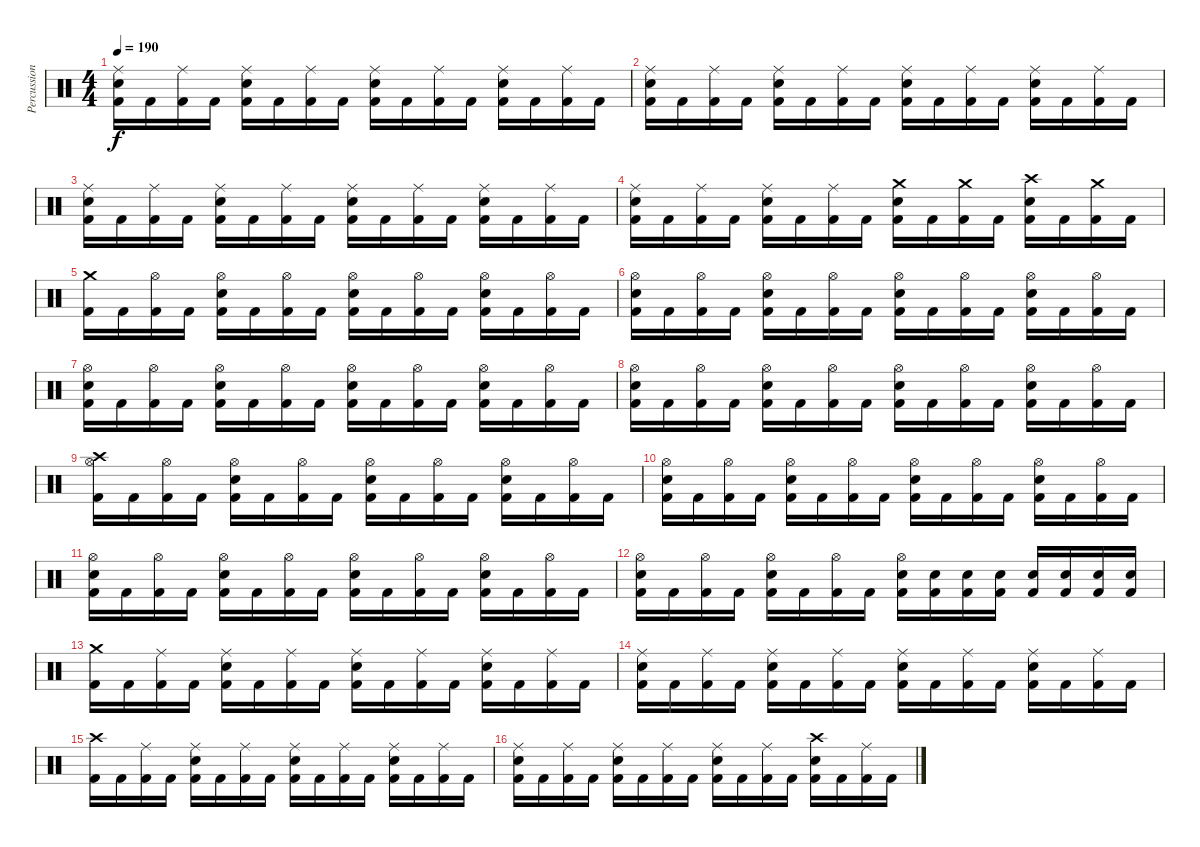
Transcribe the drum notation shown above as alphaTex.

\track ("Percussions" "Percussion") {instrument percussion}
\staff {score}
\articulation defaults
\ts (4 4)
\tempo 190
\clef neutral
\ks c
("Ride (middle)" "Electric Snare (hit)" "Kick (hit) 2").16{dy f} "Kick (hit) 2".16 ("Ride (middle)" "Kick (hit) 2").16 "Kick (hit) 2".16 ("Ride (middle)" "Electric Snare (hit)" "Kick (hit) 2").16 "Kick (hit) 2".16 ("Ride (middle)" "Kick (hit) 2").16 "Kick (hit) 2".16 ("Ride (middle)" "Electric Snare (hit)" "Kick (hit) 2").16 "Kick (hit) 2".16 ("Ride (middle)" "Kick (hit) 2").16 "Kick (hit) 2".16 ("Ride (middle)" "Electric Snare (hit)" "Kick (hit) 2").16 "Kick (hit) 2".16 ("Ride (middle)" "Kick (hit) 2").16 "Kick (hit) 2".16 |
("Ride (middle)" "Electric Snare (hit)" "Kick (hit) 2").16 "Kick (hit) 2".16 ("Ride (middle)" "Kick (hit) 2").16 "Kick (hit) 2".16 ("Ride (middle)" "Electric Snare (hit)" "Kick (hit) 2").16 "Kick (hit) 2".16 ("Ride (middle)" "Kick (hit) 2").16 "Kick (hit) 2".16 ("Ride (middle)" "Electric Snare (hit)" "Kick (hit) 2").16 "Kick (hit) 2".16 ("Ride (middle)" "Kick (hit) 2").16 "Kick (hit) 2".16 ("Ride (middle)" "Electric Snare (hit)" "Kick (hit) 2").16 "Kick (hit) 2".16 ("Ride (middle)" "Kick (hit) 2").16 "Kick (hit) 2".16 |
("Ride (middle)" "Electric Snare (hit)" "Kick (hit) 2").16 "Kick (hit) 2".16 ("Ride (middle)" "Kick (hit) 2").16 "Kick (hit) 2".16 ("Ride (middle)" "Electric Snare (hit)" "Kick (hit) 2").16 "Kick (hit) 2".16 ("Ride (middle)" "Kick (hit) 2").16 "Kick (hit) 2".16 ("Ride (middle)" "Electric Snare (hit)" "Kick (hit) 2").16 "Kick (hit) 2".16 ("Ride (middle)" "Kick (hit) 2").16 "Kick (hit) 2".16 ("Ride (middle)" "Electric Snare (hit)" "Kick (hit) 2").16 "Kick (hit) 2".16 ("Ride (middle)" "Kick (hit) 2").16 "Kick (hit) 2".16 |
("Ride (middle)" "Electric Snare (hit)" "Kick (hit) 2").16 "Kick (hit) 2".16 ("Ride (middle)" "Kick (hit) 2").16 "Kick (hit) 2".16 ("Ride (middle)" "Electric Snare (hit)" "Kick (hit) 2").16 "Kick (hit) 2".16 ("Ride (middle)" "Kick (hit) 2").16 "Kick (hit) 2".16 ("Crash medium (hit)" "Electric Snare (hit)" "Kick (hit) 2").16 "Kick (hit) 2".16 ("Crash medium (hit)" "Kick (hit) 2").16 "Kick (hit) 2".16 ("Crash high (hit)" "Electric Snare (hit)" "Kick (hit) 2").16 "Kick (hit) 2".16 ("Crash medium (hit)" "Kick (hit) 2").16 "Kick (hit) 2".16 |
("Crash medium (hit)" "Kick (hit) 2").16 "Kick (hit) 2".16 ("Hi-Hat (open)" "Kick (hit) 2").16 "Kick (hit) 2".16 ("Hi-Hat (open)" "Electric Snare (hit)" "Kick (hit) 2").16 "Kick (hit) 2".16 ("Hi-Hat (open)" "Kick (hit) 2").16 "Kick (hit) 2".16 ("Hi-Hat (open)" "Electric Snare (hit)" "Kick (hit) 2").16 "Kick (hit) 2".16 ("Hi-Hat (open)" "Kick (hit) 2").16 "Kick (hit) 2".16 ("Hi-Hat (open)" "Electric Snare (hit)" "Kick (hit) 2").16 "Kick (hit) 2".16 ("Hi-Hat (open)" "Kick (hit) 2").16 "Kick (hit) 2".16 |
("Hi-Hat (open)" "Electric Snare (hit)" "Kick (hit) 2").16 "Kick (hit) 2".16 ("Hi-Hat (open)" "Kick (hit) 2").16 "Kick (hit) 2".16 ("Hi-Hat (open)" "Electric Snare (hit)" "Kick (hit) 2").16 "Kick (hit) 2".16 ("Hi-Hat (open)" "Kick (hit) 2").16 "Kick (hit) 2".16 ("Hi-Hat (open)" "Electric Snare (hit)" "Kick (hit) 2").16 "Kick (hit) 2".16 ("Hi-Hat (open)" "Kick (hit) 2").16 "Kick (hit) 2".16 ("Hi-Hat (open)" "Electric Snare (hit)" "Kick (hit) 2").16 "Kick (hit) 2".16 ("Hi-Hat (open)" "Kick (hit) 2").16 "Kick (hit) 2".16 |
("Hi-Hat (open)" "Electric Snare (hit)" "Kick (hit) 2").16 "Kick (hit) 2".16 ("Hi-Hat (open)" "Kick (hit) 2").16 "Kick (hit) 2".16 ("Hi-Hat (open)" "Electric Snare (hit)" "Kick (hit) 2").16 "Kick (hit) 2".16 ("Hi-Hat (open)" "Kick (hit) 2").16 "Kick (hit) 2".16 ("Hi-Hat (open)" "Electric Snare (hit)" "Kick (hit) 2").16 "Kick (hit) 2".16 ("Hi-Hat (open)" "Kick (hit) 2").16 "Kick (hit) 2".16 ("Hi-Hat (open)" "Electric Snare (hit)" "Kick (hit) 2").16 "Kick (hit) 2".16 ("Hi-Hat (open)" "Kick (hit) 2").16 "Kick (hit) 2".16 |
("Hi-Hat (open)" "Electric Snare (hit)" "Kick (hit) 2").16 "Kick (hit) 2".16 ("Hi-Hat (open)" "Kick (hit) 2").16 "Kick (hit) 2".16 ("Hi-Hat (open)" "Electric Snare (hit)" "Kick (hit) 2").16 "Kick (hit) 2".16 ("Hi-Hat (open)" "Kick (hit) 2").16 "Kick (hit) 2".16 ("Hi-Hat (open)" "Electric Snare (hit)" "Kick (hit) 2").16 "Kick (hit) 2".16 ("Hi-Hat (open)" "Kick (hit) 2").16 "Kick (hit) 2".16 ("Hi-Hat (open)" "Electric Snare (hit)" "Kick (hit) 2").16 "Kick (hit) 2".16 ("Hi-Hat (open)" "Kick (hit) 2").16 "Kick (hit) 2".16 |
("Hi-Hat (open)" "Crash high (hit)" "Kick (hit) 2").16 "Kick (hit) 2".16 ("Hi-Hat (open)" "Kick (hit) 2").16 "Kick (hit) 2".16 ("Hi-Hat (open)" "Electric Snare (hit)" "Kick (hit) 2").16 "Kick (hit) 2".16 ("Hi-Hat (open)" "Kick (hit) 2").16 "Kick (hit) 2".16 ("Hi-Hat (open)" "Electric Snare (hit)" "Kick (hit) 2").16 "Kick (hit) 2".16 ("Hi-Hat (open)" "Kick (hit) 2").16 "Kick (hit) 2".16 ("Hi-Hat (open)" "Electric Snare (hit)" "Kick (hit) 2").16 "Kick (hit) 2".16 ("Hi-Hat (open)" "Kick (hit) 2").16 "Kick (hit) 2".16 |
("Hi-Hat (open)" "Electric Snare (hit)" "Kick (hit) 2").16 "Kick (hit) 2".16 ("Hi-Hat (open)" "Kick (hit) 2").16 "Kick (hit) 2".16 ("Hi-Hat (open)" "Electric Snare (hit)" "Kick (hit) 2").16 "Kick (hit) 2".16 ("Hi-Hat (open)" "Kick (hit) 2").16 "Kick (hit) 2".16 ("Hi-Hat (open)" "Electric Snare (hit)" "Kick (hit) 2").16 "Kick (hit) 2".16 ("Hi-Hat (open)" "Kick (hit) 2").16 "Kick (hit) 2".16 ("Hi-Hat (open)" "Electric Snare (hit)" "Kick (hit) 2").16 "Kick (hit) 2".16 ("Hi-Hat (open)" "Kick (hit) 2").16 "Kick (hit) 2".16 |
("Hi-Hat (open)" "Electric Snare (hit)" "Kick (hit) 2").16 "Kick (hit) 2".16 ("Hi-Hat (open)" "Kick (hit) 2").16 "Kick (hit) 2".16 ("Hi-Hat (open)" "Electric Snare (hit)" "Kick (hit) 2").16 "Kick (hit) 2".16 ("Hi-Hat (open)" "Kick (hit) 2").16 "Kick (hit) 2".16 ("Hi-Hat (open)" "Electric Snare (hit)" "Kick (hit) 2").16 "Kick (hit) 2".16 ("Hi-Hat (open)" "Kick (hit) 2").16 "Kick (hit) 2".16 ("Hi-Hat (open)" "Electric Snare (hit)" "Kick (hit) 2").16 "Kick (hit) 2".16 ("Hi-Hat (open)" "Kick (hit) 2").16 "Kick (hit) 2".16 |
("Hi-Hat (open)" "Electric Snare (hit)" "Kick (hit) 2").16 "Kick (hit) 2".16 ("Hi-Hat (open)" "Kick (hit) 2").16 "Kick (hit) 2".16 ("Hi-Hat (open)" "Electric Snare (hit)" "Kick (hit) 2").16 "Kick (hit) 2".16 ("Hi-Hat (open)" "Kick (hit) 2").16 "Kick (hit) 2".16 ("Hi-Hat (open)" "Electric Snare (hit)" "Kick (hit) 2").16 ("Electric Snare (hit)" "Kick (hit) 2").16 ("Electric Snare (hit)" "Kick (hit) 2").16 ("Electric Snare (hit)" "Kick (hit) 2").16 ("Electric Snare (hit)" "Kick (hit) 2").16 ("Electric Snare (hit)" "Kick (hit) 2").16 ("Electric Snare (hit)" "Kick (hit) 2").16 ("Electric Snare (hit)" "Kick (hit) 2").16 |
("Crash medium (hit)" "Kick (hit) 2").16 "Kick (hit) 2".16 ("Ride (middle)" "Kick (hit) 2").16 "Kick (hit) 2".16 ("Ride (middle)" "Electric Snare (hit)" "Kick (hit) 2").16 "Kick (hit) 2".16 ("Ride (middle)" "Kick (hit) 2").16 "Kick (hit) 2".16 ("Ride (middle)" "Electric Snare (hit)" "Kick (hit) 2").16 "Kick (hit) 2".16 ("Ride (middle)" "Kick (hit) 2").16 "Kick (hit) 2".16 ("Ride (middle)" "Electric Snare (hit)" "Kick (hit) 2").16 "Kick (hit) 2".16 ("Ride (middle)" "Kick (hit) 2").16 "Kick (hit) 2".16 |
("Ride (middle)" "Electric Snare (hit)" "Kick (hit) 2").16 "Kick (hit) 2".16 ("Ride (middle)" "Kick (hit) 2").16 "Kick (hit) 2".16 ("Ride (middle)" "Electric Snare (hit)" "Kick (hit) 2").16 "Kick (hit) 2".16 ("Ride (middle)" "Kick (hit) 2").16 "Kick (hit) 2".16 ("Ride (middle)" "Electric Snare (hit)" "Kick (hit) 2").16 "Kick (hit) 2".16 ("Ride (middle)" "Kick (hit) 2").16 "Kick (hit) 2".16 ("Ride (middle)" "Electric Snare (hit)" "Kick (hit) 2").16 "Kick (hit) 2".16 ("Ride (middle)" "Kick (hit) 2").16 "Kick (hit) 2".16 |
("Crash high (hit)" "Kick (hit) 2").16 "Kick (hit) 2".16 ("Ride (middle)" "Kick (hit) 2").16 "Kick (hit) 2".16 ("Ride (middle)" "Electric Snare (hit)" "Kick (hit) 2").16 "Kick (hit) 2".16 ("Ride (middle)" "Kick (hit) 2").16 "Kick (hit) 2".16 ("Ride (middle)" "Electric Snare (hit)" "Kick (hit) 2").16 "Kick (hit) 2".16 ("Ride (middle)" "Kick (hit) 2").16 "Kick (hit) 2".16 ("Ride (middle)" "Electric Snare (hit)" "Kick (hit) 2").16 "Kick (hit) 2".16 ("Ride (middle)" "Kick (hit) 2").16 "Kick (hit) 2".16 |
("Ride (middle)" "Electric Snare (hit)" "Kick (hit) 2").16 "Kick (hit) 2".16 ("Ride (middle)" "Kick (hit) 2").16 "Kick (hit) 2".16 ("Ride (middle)" "Electric Snare (hit)" "Kick (hit) 2").16 "Kick (hit) 2".16 ("Ride (middle)" "Kick (hit) 2").16 "Kick (hit) 2".16 ("Ride (middle)" "Electric Snare (hit)" "Kick (hit) 2").16 "Kick (hit) 2".16 ("Ride (middle)" "Kick (hit) 2").16 "Kick (hit) 2".16 ("Crash high (hit)" "Electric Snare (hit)" "Kick (hit) 2").16 "Kick (hit) 2".16 ("Ride (middle)" "Kick (hit) 2").16 "Kick (hit) 2".16
